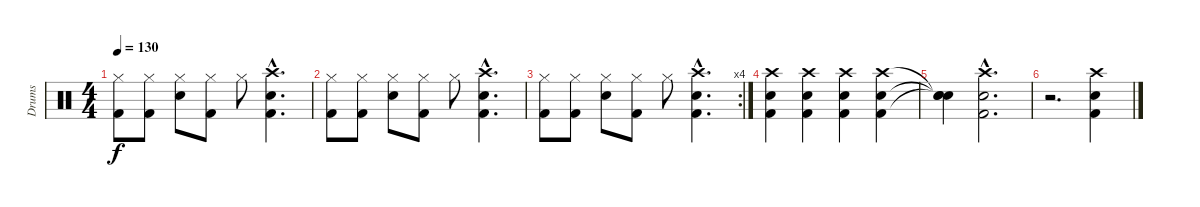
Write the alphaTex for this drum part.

\track ("Drums" "Drums") {instrument percussion}
\staff {score}
\articulation defaults
\ts (4 4)
\tempo 130
\clef neutral
\ks c
("Kick (hit) 2" "Hi-Hat (closed)").8{dy f} ("Kick (hit) 2" "Hi-Hat (closed)").8 ("Electric Snare (hit)" "Hi-Hat (closed)").8 ("Kick (hit) 2" "Hi-Hat (closed)").8 "Hi-Hat (closed)".8 ("Kick (hit) 2"{hac} "Electric Snare (hit)"{hac} "Crash high (hit)"{hac}).4{d} |
("Kick (hit) 2" "Hi-Hat (closed)").8 ("Kick (hit) 2" "Hi-Hat (closed)").8 ("Electric Snare (hit)" "Hi-Hat (closed)").8 ("Kick (hit) 2" "Hi-Hat (closed)").8 "Hi-Hat (closed)".8 ("Kick (hit) 2"{hac} "Electric Snare (hit)"{hac} "Crash high (hit)"{hac}).4{d} |
\rc 4
("Kick (hit) 2" "Hi-Hat (closed)").8 ("Kick (hit) 2" "Hi-Hat (closed)").8 ("Electric Snare (hit)" "Hi-Hat (closed)").8 ("Kick (hit) 2" "Hi-Hat (closed)").8 "Hi-Hat (closed)".8 ("Kick (hit) 2"{hac} "Electric Snare (hit)"{hac} "Crash high (hit)"{hac}).4{d} |
("Kick (hit) 2" "Electric Snare (hit)" "Crash high (hit)").4 ("Kick (hit) 2" "Electric Snare (hit)" "Crash high (hit)").4 ("Kick (hit) 2" "Electric Snare (hit)" "Crash high (hit)").4 ("Kick (hit) 2" "Electric Snare (hit)" "Crash high (hit)").4 |
("Snare (hit)"{t} "Snare (hit)"{t} "Snare (hit)"{t}).4 ("Kick (hit) 2"{hac} "Electric Snare (hit)"{hac} "Crash high (hit)"{hac}).2{d} |
r.2{d} ("Kick (hit) 2" "Electric Snare (hit)" "Crash high (hit)").4
